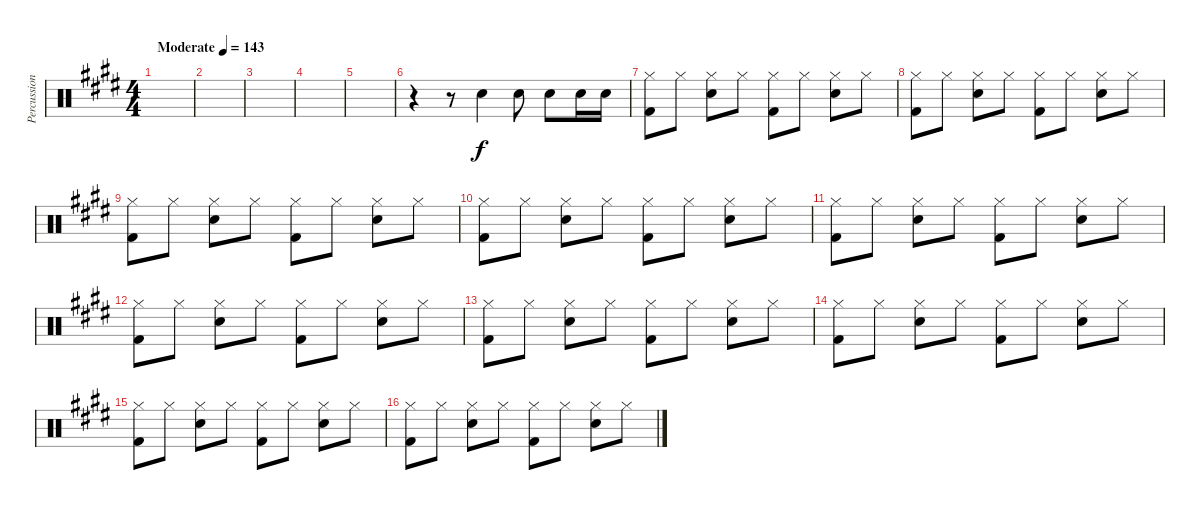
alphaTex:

\track ("Percussion" "Percussion") {instrument percussion}
\staff {score}
\articulation defaults
\ts (4 4)
\tempo (143 "Moderate")
\clef neutral
\ks e
|
|
|
|
|
r.4 r.8 "Snare (hit) 2".4 "Snare (hit) 2".8 "Snare (hit) 2".8 "Snare (hit) 2".16 "Snare (hit) 2".16 |
("Hi-Hat (closed)" "Kick (hit) 2").8 "Hi-Hat (closed)".8 ("Hi-Hat (closed)" "Snare (hit) 2").8 "Hi-Hat (closed)".8 ("Hi-Hat (closed)" "Kick (hit) 2").8 "Hi-Hat (closed)".8 ("Hi-Hat (closed)" "Snare (hit) 2").8 "Hi-Hat (closed)".8 |
("Hi-Hat (closed)" "Kick (hit) 2").8 "Hi-Hat (closed)".8 ("Hi-Hat (closed)" "Snare (hit) 2").8 "Hi-Hat (closed)".8 ("Hi-Hat (closed)" "Kick (hit) 2").8 "Hi-Hat (closed)".8 ("Hi-Hat (closed)" "Snare (hit) 2").8 "Hi-Hat (closed)".8 |
("Hi-Hat (closed)" "Kick (hit) 2").8 "Hi-Hat (closed)".8 ("Hi-Hat (closed)" "Snare (hit) 2").8 "Hi-Hat (closed)".8 ("Hi-Hat (closed)" "Kick (hit) 2").8 "Hi-Hat (closed)".8 ("Hi-Hat (closed)" "Snare (hit) 2").8 "Hi-Hat (closed)".8 |
("Hi-Hat (closed)" "Kick (hit) 2").8 "Hi-Hat (closed)".8 ("Hi-Hat (closed)" "Snare (hit) 2").8 "Hi-Hat (closed)".8 ("Hi-Hat (closed)" "Kick (hit) 2").8 "Hi-Hat (closed)".8 ("Hi-Hat (closed)" "Snare (hit) 2").8 "Hi-Hat (closed)".8 |
("Hi-Hat (closed)" "Kick (hit) 2").8 "Hi-Hat (closed)".8 ("Hi-Hat (closed)" "Snare (hit) 2").8 "Hi-Hat (closed)".8 ("Hi-Hat (closed)" "Kick (hit) 2").8 "Hi-Hat (closed)".8 ("Hi-Hat (closed)" "Snare (hit) 2").8 "Hi-Hat (closed)".8 |
("Hi-Hat (closed)" "Kick (hit) 2").8 "Hi-Hat (closed)".8 ("Hi-Hat (closed)" "Snare (hit) 2").8 "Hi-Hat (closed)".8 ("Hi-Hat (closed)" "Kick (hit) 2").8 "Hi-Hat (closed)".8 ("Hi-Hat (closed)" "Snare (hit) 2").8 "Hi-Hat (closed)".8 |
("Hi-Hat (closed)" "Kick (hit) 2").8 "Hi-Hat (closed)".8 ("Hi-Hat (closed)" "Snare (hit) 2").8 "Hi-Hat (closed)".8 ("Hi-Hat (closed)" "Kick (hit) 2").8 "Hi-Hat (closed)".8 ("Hi-Hat (closed)" "Snare (hit) 2").8 "Hi-Hat (closed)".8 |
("Hi-Hat (closed)" "Kick (hit) 2").8 "Hi-Hat (closed)".8 ("Hi-Hat (closed)" "Snare (hit) 2").8 "Hi-Hat (closed)".8 ("Hi-Hat (closed)" "Kick (hit) 2").8 "Hi-Hat (closed)".8 ("Hi-Hat (closed)" "Snare (hit) 2").8 "Hi-Hat (closed)".8 |
("Hi-Hat (closed)" "Kick (hit) 2").8 "Hi-Hat (closed)".8 ("Hi-Hat (closed)" "Snare (hit) 2").8 "Hi-Hat (closed)".8 ("Hi-Hat (closed)" "Kick (hit) 2").8 "Hi-Hat (closed)".8 ("Hi-Hat (closed)" "Snare (hit) 2").8 "Hi-Hat (closed)".8 |
("Hi-Hat (closed)" "Kick (hit) 2").8 "Hi-Hat (closed)".8 ("Hi-Hat (closed)" "Snare (hit) 2").8 "Hi-Hat (closed)".8 ("Hi-Hat (closed)" "Kick (hit) 2").8 "Hi-Hat (closed)".8 ("Hi-Hat (closed)" "Snare (hit) 2").8 "Hi-Hat (closed)".8
